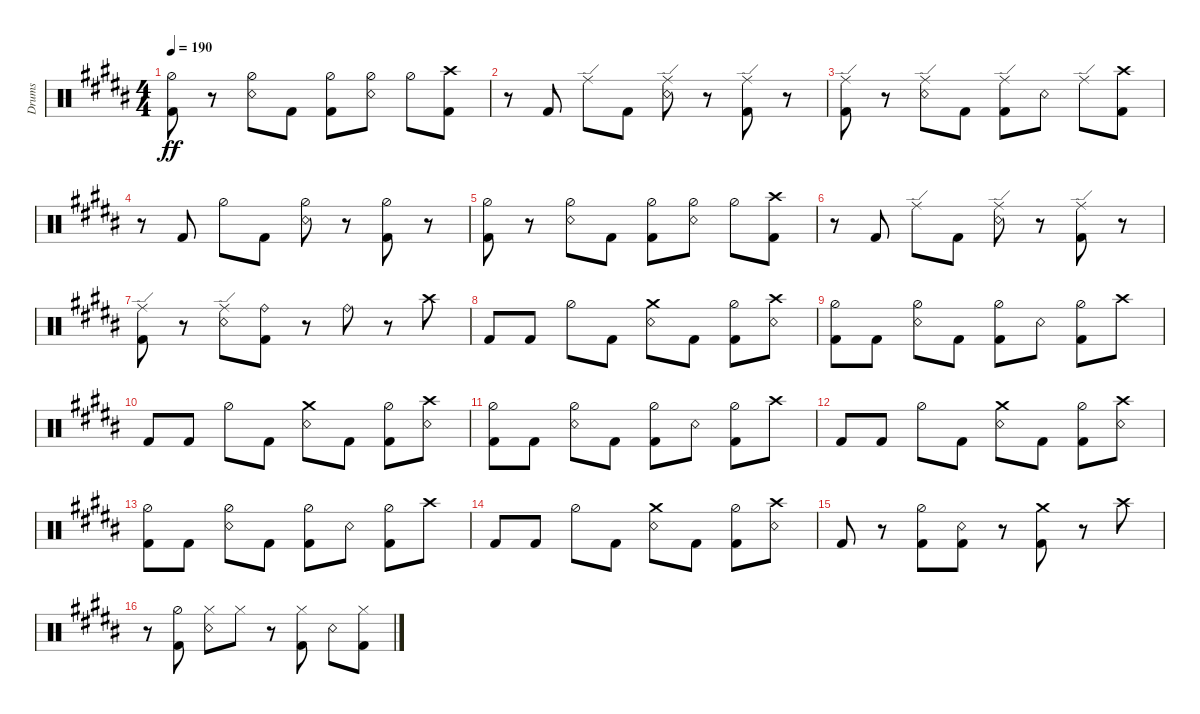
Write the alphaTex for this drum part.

\bracketExtendMode groupsimilarinstruments
\otherSystemsTrackNameOrientation horizontal
\track ("Drumkit" "Drums") {instrument percussion}
\staff {score}
\articulation defaults
\ts (4 4)
\tempo 190
\clef neutral
\ks b
("Kick (hit) 2"{acc forcenatural} "Hi-Hat (half)"{acc forcenatural}).8{dy ff} r.8 ("Snare (rim shot)"{acc forcenatural} "Hi-Hat (half)"{acc forcenatural}).8 "Kick (hit) 2"{acc forcenatural}.8 ("Kick (hit) 2"{acc forcenatural} "Hi-Hat (half)"{acc forcenatural}).8 ("Snare (rim shot)"{acc forcenatural} "Hi-Hat (half)"{acc forcenatural}).8 "Hi-Hat (half)"{acc forcenatural}.8 ("Crash high (hit)"{acc forcenatural} "Kick (hit) 2"{acc forcenatural}).8 |
r.8 "Kick (hit) 2"{acc forcenatural}.8 "Ride (edge)"{acc forcenatural}.8 "Kick (hit) 2"{acc forcenatural}.8 ("Snare (rim shot)"{acc forcenatural} "Ride (edge)"{acc forcenatural}).8 r.8 ("Kick (hit) 2"{acc forcenatural} "Ride (edge)"{acc forcenatural}).8 r.8 |
("Kick (hit) 2"{acc forcenatural} "Ride (edge)"{acc forcenatural}).8 r.8 ("Snare (rim shot)"{acc forcenatural} "Ride (edge)"{acc forcenatural}).8 "Kick (hit) 2"{acc forcenatural}.8 ("Kick (hit) 2"{acc forcenatural} "Ride (edge)"{acc forcenatural}).8 "Snare (rim shot)"{acc forcenatural}.8 "Ride (edge)"{acc forcenatural}.8 ("Crash high (hit)"{acc forcenatural} "Kick (hit) 2"{acc forcenatural}).8 |
r.8 "Kick (hit) 2"{acc forcenatural}.8 "Hi-Hat (half)"{acc forcenatural}.8 "Kick (hit) 2"{acc forcenatural}.8 ("Snare (rim shot)"{acc forcenatural} "Hi-Hat (half)"{acc forcenatural}).8 r.8 ("Kick (hit) 2"{acc forcenatural} "Hi-Hat (half)"{acc forcenatural}).8 r.8 |
("Kick (hit) 2"{acc forcenatural} "Hi-Hat (half)"{acc forcenatural}).8 r.8 ("Snare (rim shot)"{acc forcenatural} "Hi-Hat (half)"{acc forcenatural}).8 "Kick (hit) 2"{acc forcenatural}.8 ("Kick (hit) 2"{acc forcenatural} "Hi-Hat (half)"{acc forcenatural}).8 ("Snare (rim shot)"{acc forcenatural} "Hi-Hat (half)"{acc forcenatural}).8 "Hi-Hat (half)"{acc forcenatural}.8 ("Crash high (hit)"{acc forcenatural} "Kick (hit) 2"{acc forcenatural}).8 |
r.8 "Kick (hit) 2"{acc forcenatural}.8 "Ride (edge)"{acc forcenatural}.8 "Kick (hit) 2"{acc forcenatural}.8 ("Snare (rim shot)"{acc forcenatural} "Ride (edge)"{acc forcenatural}).8 r.8 ("Kick (hit) 2"{acc forcenatural} "Ride (edge)"{acc forcenatural}).8 r.8 |
("Kick (hit) 2"{acc forcenatural} "Ride (edge)"{acc forcenatural}).8 r.8 ("Snare (rim shot)"{acc forcenatural} "Ride (edge)"{acc forcenatural}).8 ("Kick (hit) 2"{acc forcenatural} "Ride (bell)"{acc forcenatural}).8 r.8 "Ride (bell)"{acc forcenatural}.8 r.8 "Crash high (hit)"{acc forcenatural}.8 |
"Kick (hit) 2"{acc forcenatural}.8 "Kick (hit) 2"{acc forcenatural}.8 "Hi-Hat (half)"{acc forcenatural}.8 "Kick (hit) 2"{acc forcenatural}.8 ("Snare (rim shot)"{acc forcenatural} "Crash medium (hit)"{acc forcenatural}).8 "Kick (hit) 2"{acc forcenatural}.8 ("Kick (hit) 2"{acc forcenatural} "Hi-Hat (half)"{acc forcenatural}).8 ("Crash high (hit)"{acc forcenatural} "Snare (rim shot)"{acc forcenatural}).8 |
("Kick (hit) 2"{acc forcenatural} "Hi-Hat (half)"{acc forcenatural}).8 "Kick (hit) 2"{acc forcenatural}.8 ("Snare (rim shot)"{acc forcenatural} "Hi-Hat (half)"{acc forcenatural}).8 "Kick (hit) 2"{acc forcenatural}.8 ("Kick (hit) 2"{acc forcenatural} "Hi-Hat (half)"{acc forcenatural}).8 "Snare (rim shot)"{acc forcenatural}.8 ("Hi-Hat (half)"{acc forcenatural} "Kick (hit) 2"{acc forcenatural}).8 "Crash high (hit)"{acc forcenatural}.8 |
"Kick (hit) 2"{acc forcenatural}.8 "Kick (hit) 2"{acc forcenatural}.8 "Hi-Hat (half)"{acc forcenatural}.8 "Kick (hit) 2"{acc forcenatural}.8 ("Snare (rim shot)"{acc forcenatural} "Crash medium (hit)"{acc forcenatural}).8 "Kick (hit) 2"{acc forcenatural}.8 ("Kick (hit) 2"{acc forcenatural} "Hi-Hat (half)"{acc forcenatural}).8 ("Crash high (hit)"{acc forcenatural} "Snare (rim shot)"{acc forcenatural}).8 |
("Kick (hit) 2"{acc forcenatural} "Hi-Hat (half)"{acc forcenatural}).8 "Kick (hit) 2"{acc forcenatural}.8 ("Snare (rim shot)"{acc forcenatural} "Hi-Hat (half)"{acc forcenatural}).8 "Kick (hit) 2"{acc forcenatural}.8 ("Kick (hit) 2"{acc forcenatural} "Hi-Hat (half)"{acc forcenatural}).8 "Snare (rim shot)"{acc forcenatural}.8 ("Hi-Hat (half)"{acc forcenatural} "Kick (hit) 2"{acc forcenatural}).8 "Crash high (hit)"{acc forcenatural}.8 |
"Kick (hit) 2"{acc forcenatural}.8 "Kick (hit) 2"{acc forcenatural}.8 "Hi-Hat (half)"{acc forcenatural}.8 "Kick (hit) 2"{acc forcenatural}.8 ("Snare (rim shot)"{acc forcenatural} "Crash medium (hit)"{acc forcenatural}).8 "Kick (hit) 2"{acc forcenatural}.8 ("Kick (hit) 2"{acc forcenatural} "Hi-Hat (half)"{acc forcenatural}).8 ("Crash high (hit)"{acc forcenatural} "Snare (rim shot)"{acc forcenatural}).8 |
("Kick (hit) 2"{acc forcenatural} "Hi-Hat (half)"{acc forcenatural}).8 "Kick (hit) 2"{acc forcenatural}.8 ("Snare (rim shot)"{acc forcenatural} "Hi-Hat (half)"{acc forcenatural}).8 "Kick (hit) 2"{acc forcenatural}.8 ("Kick (hit) 2"{acc forcenatural} "Hi-Hat (half)"{acc forcenatural}).8 "Snare (rim shot)"{acc forcenatural}.8 ("Hi-Hat (half)"{acc forcenatural} "Kick (hit) 2"{acc forcenatural}).8 "Crash high (hit)"{acc forcenatural}.8 |
"Kick (hit) 2"{acc forcenatural}.8 "Kick (hit) 2"{acc forcenatural}.8 "Hi-Hat (half)"{acc forcenatural}.8 "Kick (hit) 2"{acc forcenatural}.8 ("Snare (rim shot)"{acc forcenatural} "Crash medium (hit)"{acc forcenatural}).8 "Kick (hit) 2"{acc forcenatural}.8 ("Kick (hit) 2"{acc forcenatural} "Hi-Hat (half)"{acc forcenatural}).8 ("Crash high (hit)"{acc forcenatural} "Snare (rim shot)"{acc forcenatural}).8 |
"Kick (hit) 2"{acc forcenatural}.8 r.8 ("Kick (hit) 2"{acc forcenatural} "Hi-Hat (half)"{acc forcenatural}).8 ("Kick (hit) 2"{acc forcenatural} "Snare (rim shot)"{acc forcenatural}).8 r.8 ("Kick (hit) 2"{acc forcenatural} "Crash medium (hit)"{acc forcenatural}).8 r.8 "Crash high (hit)"{acc forcenatural}.8 |
r.8 ("Kick (hit) 2"{acc forcenatural} "Hi-Hat (half)"{acc forcenatural}).8 ("Snare (rim shot)"{acc forcenatural} "Hi-Hat (closed)"{acc forcenatural}).8 "Hi-Hat (closed)"{acc forcenatural}.8 r.8 ("Hi-Hat (closed)"{acc forcenatural} "Kick (hit) 2"{acc forcenatural}).8 "Snare (rim shot)"{acc forcenatural}.8 ("Kick (hit) 2"{acc forcenatural} "Hi-Hat (closed)"{acc forcenatural}).8
